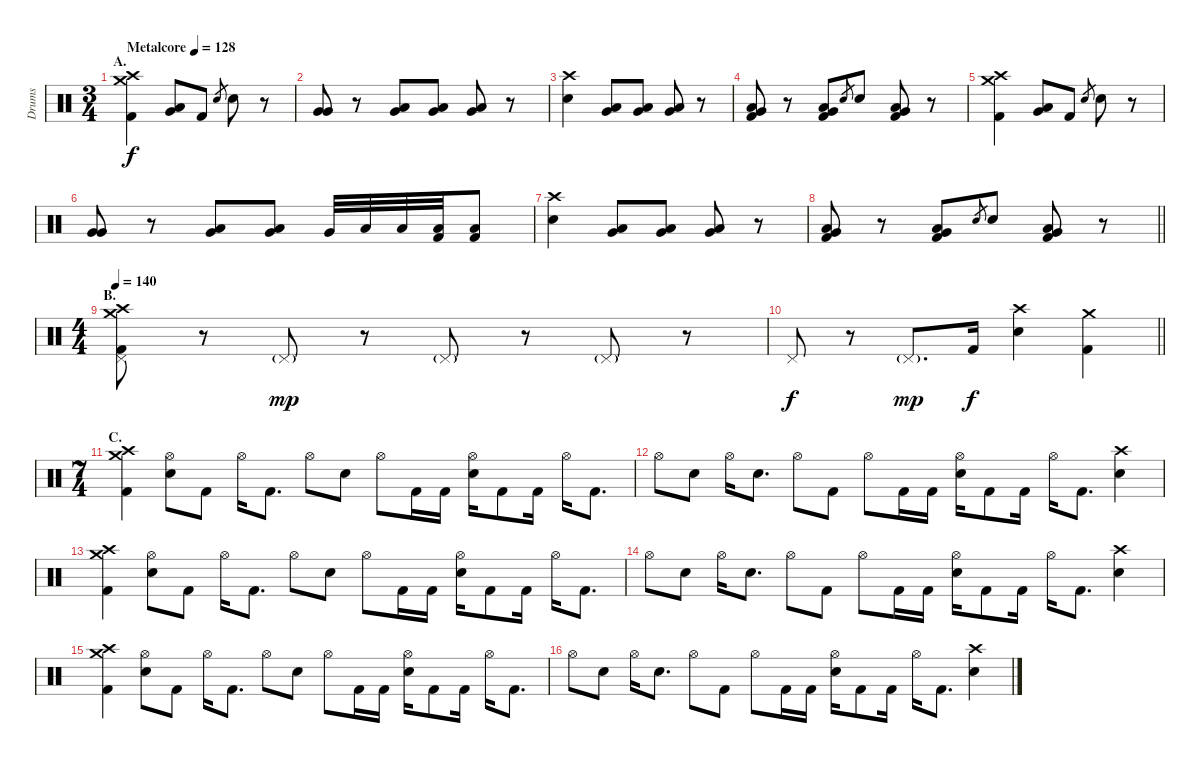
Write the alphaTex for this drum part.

\track ("Drums" "Drums") {instrument percussion}
\staff {score}
\articulation defaults
\ts (3 4)
\section ("" "A.")
\tempo (128 "Metalcore")
\clef neutral
\ks c
("Crash medium (hit)" "Crash high (hit)" "Kick (hit) 2").4{dy f} ("Very Low Tom (hit)" "Low Floor Tom (hit)").8{bu 120} "Kick (hit) 2".8 "Electric Snare (hit)".8{gr} "Electric Snare (hit)".8 r.8 |
("Very Low Tom (hit)" "Very Low Tom (hit)").8{bu 120} r.8 ("Low Tom (hit)" "Very Low Tom (hit)").8 ("Very Low Tom (hit)" "Low Floor Tom (hit)").8 ("Very Low Tom (hit)" "Low Floor Tom (hit)").8 r.8 |
("Crash high (hit)" "Electric Snare (hit)").4 ("Low Tom (hit)" "Very Low Tom (hit)").8 ("Very Low Tom (hit)" "Low Floor Tom (hit)").8 ("Very Low Tom (hit)" "Low Floor Tom (hit)").8 r.8 |
("Very Low Tom (hit)" "Low Floor Tom (hit)" "Kick (hit) 2").8 r.8 ("Very Low Tom (hit)" "Low Floor Tom (hit)" "Kick (hit) 2").8 "Electric Snare (hit)".8{gr} "Electric Snare (hit)".8 ("Very Low Tom (hit)" "Low Floor Tom (hit)" "Kick (hit) 2").8 r.8 |
("Crash medium (hit)" "Crash high (hit)" "Kick (hit) 2").4 ("Very Low Tom (hit)" "Low Floor Tom (hit)").8{bu 120} "Kick (hit) 2".8 "Electric Snare (hit)".8{gr} "Electric Snare (hit)".8 r.8 |
("Very Low Tom (hit)" "Very Low Tom (hit)").8{bu 120} r.8 ("Low Tom (hit)" "Very Low Tom (hit)").8 ("Very Low Tom (hit)" "Low Floor Tom (hit)").8 "Very Low Tom (hit)".32 "Low Floor Tom (hit)".32 "Low Floor Tom (hit)".32 ("Low Floor Tom (hit)" "Kick (hit) 2").32 ("Low Floor Tom (hit)" "Kick (hit) 2").8 |
("Crash high (hit)" "Electric Snare (hit)").4 ("Low Tom (hit)" "Very Low Tom (hit)").8 ("Very Low Tom (hit)" "Low Floor Tom (hit)").8 ("Very Low Tom (hit)" "Low Floor Tom (hit)").8 r.8 |
\barLineRight lightlight
("Very Low Tom (hit)" "Low Floor Tom (hit)" "Kick (hit) 2").8 r.8 ("Very Low Tom (hit)" "Low Floor Tom (hit)" "Kick (hit) 2").8 "Electric Snare (hit)".8{gr} "Electric Snare (hit)".8 ("Very Low Tom (hit)" "Low Floor Tom (hit)" "Kick (hit) 2").8 r.8 |
\ts (4 4)
\section ("" "B.")
\tempo 140
("Crash medium (hit)" "Crash high (hit)" "Pedal Hi-Hat (hit)" "Kick (hit) 2").8 r.8 "Pedal Hi-Hat (hit)"{g}.8{dy mp} r.8 "Pedal Hi-Hat (hit)"{g}.8 r.8 "Pedal Hi-Hat (hit)"{g}.8 r.8 |
\barLineRight lightlight "Pedal Hi-Hat (hit)".8{dy f}
r.8 "Pedal Hi-Hat (hit)"{g}.8{d dy mp} "Kick (hit) 2".16{dy f} ("Crash high (hit)" "Electric Snare (hit)").4 ("Crash medium (hit)" "Kick (hit) 2").4 |
\ts (7 4)
\section ("" "C.")
("Crash medium (hit)" "Crash high (hit)" "Kick (hit) 2").4 ("Hi-Hat (open)" "Electric Snare (hit)").8 "Kick (hit) 2".8 "Hi-Hat (open)".16 "Kick (hit) 2".8{d} "Hi-Hat (open)".8 "Electric Snare (hit)".8 "Hi-Hat (open)".8 "Kick (hit) 2".16 "Kick (hit) 2".16 ("Hi-Hat (open)" "Electric Snare (hit)").16 "Kick (hit) 2".8 "Kick (hit) 2".16 "Hi-Hat (open)".16 "Kick (hit) 2".8{d} |
"Hi-Hat (open)".8 "Electric Snare (hit)".8 "Hi-Hat (open)".16 "Electric Snare (hit)".8{d} "Hi-Hat (open)".8 "Kick (hit) 2".8 "Hi-Hat (open)".8 "Kick (hit) 2".16 "Kick (hit) 2".16 ("Hi-Hat (open)" "Electric Snare (hit)").16 "Kick (hit) 2".8 "Kick (hit) 2".16 "Hi-Hat (open)".16 "Kick (hit) 2".8{d} ("Crash high (hit)" "Electric Snare (hit)").4 |
("Crash medium (hit)" "Crash high (hit)" "Kick (hit) 2").4 ("Hi-Hat (open)" "Electric Snare (hit)").8 "Kick (hit) 2".8 "Hi-Hat (open)".16 "Kick (hit) 2".8{d} "Hi-Hat (open)".8 "Electric Snare (hit)".8 "Hi-Hat (open)".8 "Kick (hit) 2".16 "Kick (hit) 2".16 ("Hi-Hat (open)" "Electric Snare (hit)").16 "Kick (hit) 2".8 "Kick (hit) 2".16 "Hi-Hat (open)".16 "Kick (hit) 2".8{d} |
"Hi-Hat (open)".8 "Electric Snare (hit)".8 "Hi-Hat (open)".16 "Electric Snare (hit)".8{d} "Hi-Hat (open)".8 "Kick (hit) 2".8 "Hi-Hat (open)".8 "Kick (hit) 2".16 "Kick (hit) 2".16 ("Hi-Hat (open)" "Electric Snare (hit)").16 "Kick (hit) 2".8 "Kick (hit) 2".16 "Hi-Hat (open)".16 "Kick (hit) 2".8{d} ("Crash high (hit)" "Electric Snare (hit)").4 |
("Crash medium (hit)" "Crash high (hit)" "Kick (hit) 2").4 ("Hi-Hat (open)" "Electric Snare (hit)").8 "Kick (hit) 2".8 "Hi-Hat (open)".16 "Kick (hit) 2".8{d} "Hi-Hat (open)".8 "Electric Snare (hit)".8 "Hi-Hat (open)".8 "Kick (hit) 2".16 "Kick (hit) 2".16 ("Hi-Hat (open)" "Electric Snare (hit)").16 "Kick (hit) 2".8 "Kick (hit) 2".16 "Hi-Hat (open)".16 "Kick (hit) 2".8{d} |
"Hi-Hat (open)".8 "Electric Snare (hit)".8 "Hi-Hat (open)".16 "Electric Snare (hit)".8{d} "Hi-Hat (open)".8 "Kick (hit) 2".8 "Hi-Hat (open)".8 "Kick (hit) 2".16 "Kick (hit) 2".16 ("Hi-Hat (open)" "Electric Snare (hit)").16 "Kick (hit) 2".8 "Kick (hit) 2".16 "Hi-Hat (open)".16 "Kick (hit) 2".8{d} ("Crash high (hit)" "Electric Snare (hit)").4
